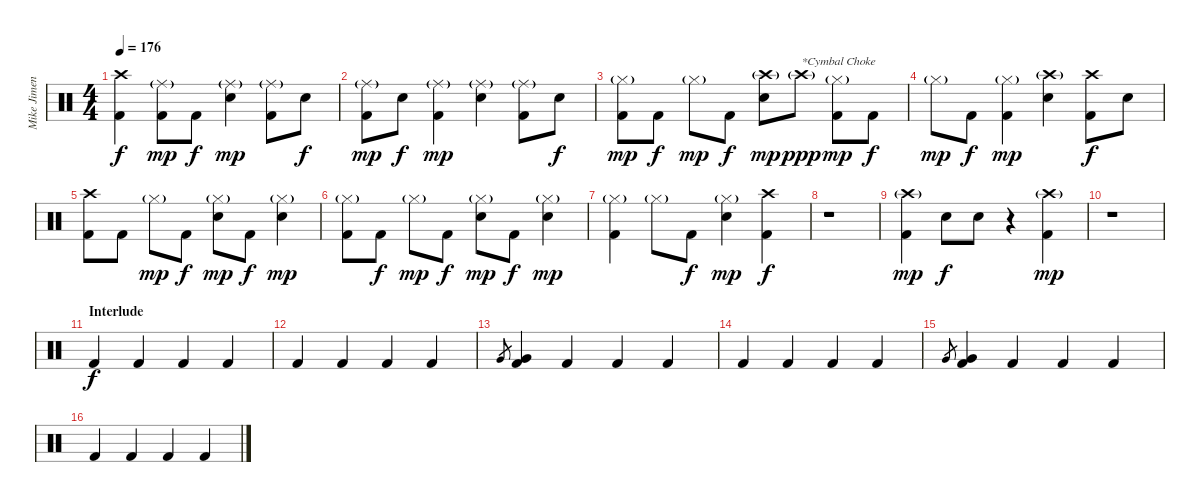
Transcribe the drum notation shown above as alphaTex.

\track ("Mike Jimenez" "Mike Jimen") {instrument percussion}
\staff {score}
\articulation defaults
\ts (4 4)
\tempo 176
\clef neutral
\ks c
("Crash high (hit)" "Kick (hit) 2").4{dy f} ("Ride (middle)"{g} "Kick (hit) 2").8{dy mp} "Kick (hit) 2".8{dy f} ("Ride (middle)"{g} "Electric Snare (hit)").4{dy mp} ("Ride (middle)"{g} "Kick (hit) 2").8 "Electric Snare (hit)".8{dy f} |
("Ride (middle)"{g} "Kick (hit) 2").8{dy mp} "Electric Snare (hit)".8{dy f} ("Ride (middle)"{g} "Kick (hit) 2").4{dy mp} ("Ride (middle)"{g} "Electric Snare (hit)").4 ("Ride (middle)"{g} "Kick (hit) 2").8 "Electric Snare (hit)".8{dy f} |
("Hi-Hat (closed)"{g} "Kick (hit) 2").8{dy mp} "Kick (hit) 2".8{dy f} "Hi-Hat (closed)"{g}.8{dy mp} "Kick (hit) 2".8{dy f} ("Crash high (hit)"{g} "Electric Snare (hit)").8{dy mp} "Crash high (hit)"{g}.8{txt "*Cymbal Choke" dy ppp} ("Hi-Hat (closed)"{g} "Kick (hit) 2").8{dy mp} "Kick (hit) 2".8{dy f} |
"Hi-Hat (closed)"{g}.8{dy mp} "Kick (hit) 2".8{dy f} ("Hi-Hat (closed)"{g} "Kick (hit) 2").4{dy mp} ("Crash high (hit)"{g} "Electric Snare (hit)").4 ("Crash high (hit)" "Kick (hit) 2").8{dy f} "Electric Snare (hit)".8 |
("Crash high (hit)" "Kick (hit) 2").8 "Kick (hit) 2".8 "Hi-Hat (closed)"{g}.8{dy mp} "Kick (hit) 2".8{dy f} ("Hi-Hat (closed)"{g} "Electric Snare (hit)").8{dy mp} "Kick (hit) 2".8{dy f} ("Hi-Hat (closed)"{g} "Electric Snare (hit)").4{dy mp} |
("Hi-Hat (closed)"{g} "Kick (hit) 2").8 "Kick (hit) 2".8{dy f} "Hi-Hat (closed)"{g}.8{dy mp} "Kick (hit) 2".8{dy f} ("Hi-Hat (closed)"{g} "Electric Snare (hit)").8{dy mp} "Kick (hit) 2".8{dy f} ("Hi-Hat (closed)"{g} "Electric Snare (hit)").4{dy mp} |
("Hi-Hat (closed)"{g} "Kick (hit) 2").4 "Hi-Hat (closed)"{g}.8 "Kick (hit) 2".8{dy f} ("Hi-Hat (closed)"{g} "Electric Snare (hit)").4{dy mp} ("Crash high (hit)" "Kick (hit) 2").4{dy f} |
r.1 |
("Crash high (hit)"{g} "Kick (hit) 2").4{dy mp} "Electric Snare (hit)".8{dy f} "Electric Snare (hit)".8 r.4 ("Crash high (hit)"{g} "Kick (hit) 2").4{dy mp} |
r.1 |
\section ("" "Interlude")
"Kick (hit) 2".4{dy f} "Kick (hit) 2".4 "Kick (hit) 2".4 "Kick (hit) 2".4 |
"Kick (hit) 2".4 "Kick (hit) 2".4 "Kick (hit) 2".4 "Kick (hit) 2".4 |
"Very Low Tom (hit)".8{gr} ("Very Low Tom (hit)" "Kick (hit) 2").4 "Kick (hit) 2".4 "Kick (hit) 2".4 "Kick (hit) 2".4 |
"Kick (hit) 2".4 "Kick (hit) 2".4 "Kick (hit) 2".4 "Kick (hit) 2".4 |
"Very Low Tom (hit)".8{gr} ("Very Low Tom (hit)" "Kick (hit) 2").4 "Kick (hit) 2".4 "Kick (hit) 2".4 "Kick (hit) 2".4 |
"Kick (hit) 2".4 "Kick (hit) 2".4 "Kick (hit) 2".4 "Kick (hit) 2".4
